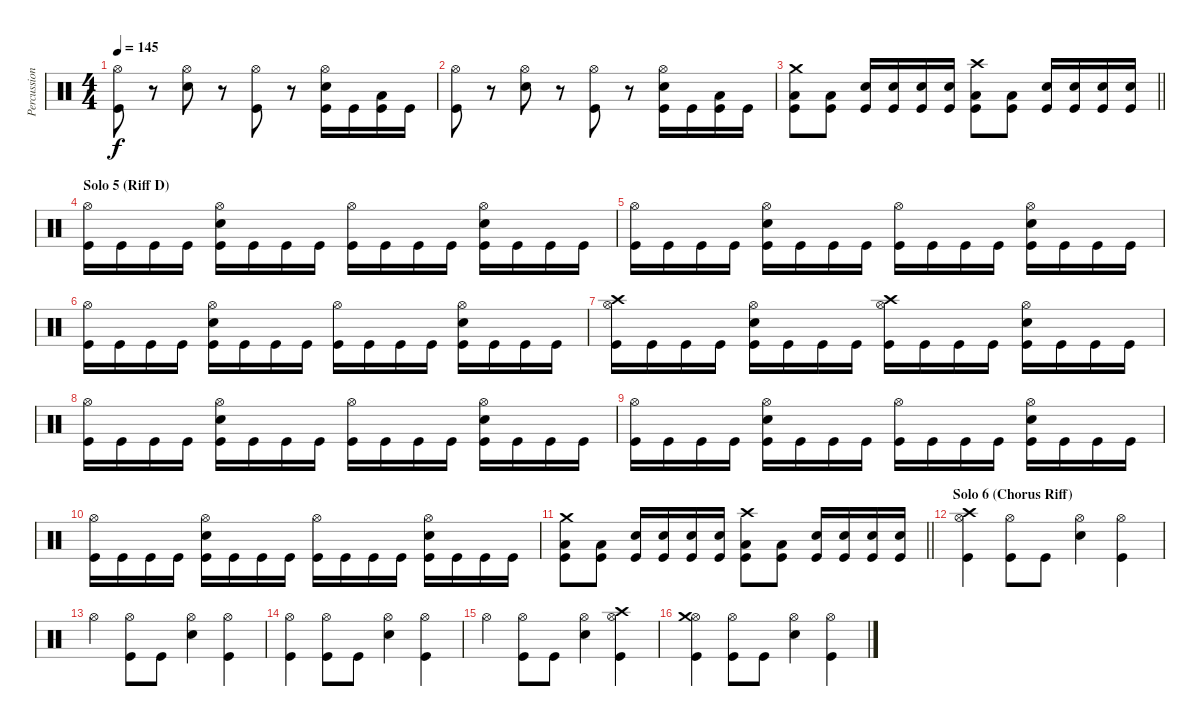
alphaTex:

\track ("Percussion" "Percussion") {instrument percussion}
\staff {score}
\articulation defaults
\ts (4 4)
\tempo 145
\clef neutral
\ks c
("Hi-Hat (open)" "Kick (hit)").8{dy f} r.8 ("Hi-Hat (open)" "Snare (hit) 2").8 r.8 ("Hi-Hat (open)" "Kick (hit)").8 r.8 ("Hi-Hat (open)" "Snare (hit) 2" "Kick (hit)").16 "Kick (hit)".16 ("Low Floor Tom (hit)" "Kick (hit)").16 "Kick (hit)".16 |
("Hi-Hat (open)" "Kick (hit)").8 r.8 ("Hi-Hat (open)" "Snare (hit) 2").8 r.8 ("Hi-Hat (open)" "Kick (hit)").8 r.8 ("Hi-Hat (open)" "Snare (hit) 2" "Kick (hit)").16 "Kick (hit)".16 ("Low Floor Tom (hit)" "Kick (hit)").16 "Kick (hit)".16 |
\barLineRight lightlight
("Crash medium (hit)" "Low Floor Tom (hit)" "Kick (hit)").8 ("Low Floor Tom (hit)" "Kick (hit)").8 ("Snare (hit) 2" "Kick (hit)").16 ("Snare (hit) 2" "Kick (hit)").16 ("Snare (hit) 2" "Kick (hit)").16 ("Snare (hit) 2" "Kick (hit)").16 ("Crash high (hit)" "Low Floor Tom (hit)" "Kick (hit)").8 ("Low Floor Tom (hit)" "Kick (hit)").8 ("Snare (hit) 2" "Kick (hit)").16 ("Snare (hit) 2" "Kick (hit)").16 ("Snare (hit) 2" "Kick (hit)").16 ("Snare (hit) 2" "Kick (hit)").16 |
\section ("" "Solo 5 (Riff D)")
("Hi-Hat (open)" "Kick (hit)").16 "Kick (hit)".16 "Kick (hit)".16 "Kick (hit)".16 ("Hi-Hat (open)" "Snare (hit) 2" "Kick (hit)").16 "Kick (hit)".16 "Kick (hit)".16 "Kick (hit)".16 ("Hi-Hat (open)" "Kick (hit)").16 "Kick (hit)".16 "Kick (hit)".16 "Kick (hit)".16 ("Hi-Hat (open)" "Snare (hit) 2" "Kick (hit)").16 "Kick (hit)".16 "Kick (hit)".16 "Kick (hit)".16 |
("Hi-Hat (open)" "Kick (hit)").16 "Kick (hit)".16 "Kick (hit)".16 "Kick (hit)".16 ("Hi-Hat (open)" "Snare (hit) 2" "Kick (hit)").16 "Kick (hit)".16 "Kick (hit)".16 "Kick (hit)".16 ("Hi-Hat (open)" "Kick (hit)").16 "Kick (hit)".16 "Kick (hit)".16 "Kick (hit)".16 ("Hi-Hat (open)" "Snare (hit) 2" "Kick (hit)").16 "Kick (hit)".16 "Kick (hit)".16 "Kick (hit)".16 |
("Hi-Hat (open)" "Kick (hit)").16 "Kick (hit)".16 "Kick (hit)".16 "Kick (hit)".16 ("Hi-Hat (open)" "Snare (hit) 2" "Kick (hit)").16 "Kick (hit)".16 "Kick (hit)".16 "Kick (hit)".16 ("Hi-Hat (open)" "Kick (hit)").16 "Kick (hit)".16 "Kick (hit)".16 "Kick (hit)".16 ("Hi-Hat (open)" "Snare (hit) 2" "Kick (hit)").16 "Kick (hit)".16 "Kick (hit)".16 "Kick (hit)".16 |
("Hi-Hat (open)" "Crash high (hit)" "Kick (hit)").16 "Kick (hit)".16 "Kick (hit)".16 "Kick (hit)".16 ("Hi-Hat (open)" "Snare (hit) 2" "Kick (hit)").16 "Kick (hit)".16 "Kick (hit)".16 "Kick (hit)".16 ("Hi-Hat (open)" "Crash high (hit)" "Kick (hit)").16 "Kick (hit)".16 "Kick (hit)".16 "Kick (hit)".16 ("Hi-Hat (open)" "Snare (hit) 2" "Kick (hit)").16 "Kick (hit)".16 "Kick (hit)".16 "Kick (hit)".16 |
("Hi-Hat (open)" "Kick (hit)").16 "Kick (hit)".16 "Kick (hit)".16 "Kick (hit)".16 ("Hi-Hat (open)" "Snare (hit) 2" "Kick (hit)").16 "Kick (hit)".16 "Kick (hit)".16 "Kick (hit)".16 ("Hi-Hat (open)" "Kick (hit)").16 "Kick (hit)".16 "Kick (hit)".16 "Kick (hit)".16 ("Hi-Hat (open)" "Snare (hit) 2" "Kick (hit)").16 "Kick (hit)".16 "Kick (hit)".16 "Kick (hit)".16 |
("Hi-Hat (open)" "Kick (hit)").16 "Kick (hit)".16 "Kick (hit)".16 "Kick (hit)".16 ("Hi-Hat (open)" "Snare (hit) 2" "Kick (hit)").16 "Kick (hit)".16 "Kick (hit)".16 "Kick (hit)".16 ("Hi-Hat (open)" "Kick (hit)").16 "Kick (hit)".16 "Kick (hit)".16 "Kick (hit)".16 ("Hi-Hat (open)" "Snare (hit) 2" "Kick (hit)").16 "Kick (hit)".16 "Kick (hit)".16 "Kick (hit)".16 |
("Hi-Hat (open)" "Kick (hit)").16 "Kick (hit)".16 "Kick (hit)".16 "Kick (hit)".16 ("Hi-Hat (open)" "Snare (hit) 2" "Kick (hit)").16 "Kick (hit)".16 "Kick (hit)".16 "Kick (hit)".16 ("Hi-Hat (open)" "Kick (hit)").16 "Kick (hit)".16 "Kick (hit)".16 "Kick (hit)".16 ("Hi-Hat (open)" "Snare (hit) 2" "Kick (hit)").16 "Kick (hit)".16 "Kick (hit)".16 "Kick (hit)".16 |
\barLineRight lightlight
("Crash medium (hit)" "Low Floor Tom (hit)" "Kick (hit)").8 ("Low Floor Tom (hit)" "Kick (hit)").8 ("Snare (hit) 2" "Kick (hit)").16 ("Snare (hit) 2" "Kick (hit)").16 ("Snare (hit) 2" "Kick (hit)").16 ("Snare (hit) 2" "Kick (hit)").16 ("Crash high (hit)" "Low Floor Tom (hit)" "Kick (hit)").8 ("Low Floor Tom (hit)" "Kick (hit)").8 ("Snare (hit) 2" "Kick (hit)").16 ("Snare (hit) 2" "Kick (hit)").16 ("Snare (hit) 2" "Kick (hit)").16 ("Snare (hit) 2" "Kick (hit)").16 |
\section ("" "Solo 6 (Chorus Riff)")
("Hi-Hat (open)" "Crash high (hit)" "Kick (hit)").4 ("Hi-Hat (open)" "Kick (hit)").8 "Kick (hit)".8 ("Hi-Hat (open)" "Snare (hit) 2").4 ("Hi-Hat (open)" "Kick (hit)").4 |
"Hi-Hat (open)".4 ("Hi-Hat (open)" "Kick (hit)").8 "Kick (hit)".8 ("Hi-Hat (open)" "Snare (hit) 2").4 ("Hi-Hat (open)" "Kick (hit)").4 |
("Hi-Hat (open)" "Kick (hit)").4 ("Hi-Hat (open)" "Kick (hit)").8 "Kick (hit)".8 ("Hi-Hat (open)" "Snare (hit) 2").4 ("Hi-Hat (open)" "Kick (hit)").4 |
"Hi-Hat (open)".4 ("Hi-Hat (open)" "Kick (hit)").8 "Kick (hit)".8 ("Hi-Hat (open)" "Snare (hit) 2").4 ("Hi-Hat (open)" "Crash high (hit)" "Kick (hit)").4 |
("Hi-Hat (open)" "Crash medium (hit)" "Kick (hit)").4 ("Hi-Hat (open)" "Kick (hit)").8 "Kick (hit)".8 ("Hi-Hat (open)" "Snare (hit) 2").4 ("Hi-Hat (open)" "Kick (hit)").4
